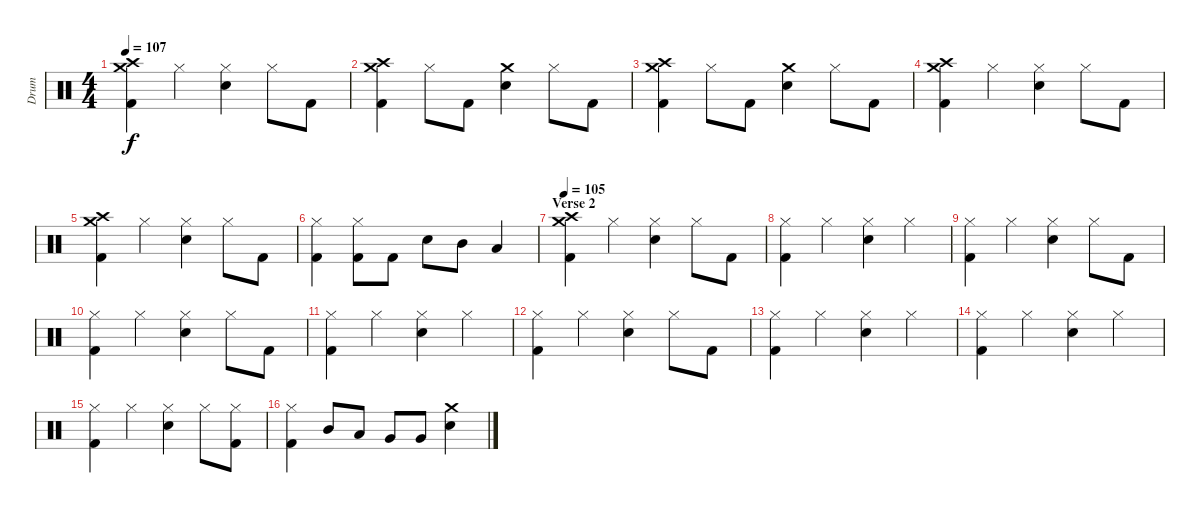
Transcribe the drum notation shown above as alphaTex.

\track ("Drum" "Drum") {instrument percussion}
\staff {score}
\articulation defaults
\ts (4 4)
\tempo 107
\clef neutral
\ks c
("Kick (hit) 2" "Crash high (hit)" "Crash medium (hit)").4{dy f} "Hi-Hat (closed)".4 ("Hi-Hat (closed)" "Snare (hit) 2").4 "Hi-Hat (closed)".8 "Kick (hit) 2".8 |
("Kick (hit) 2" "Crash high (hit)" "Crash medium (hit)").4 "Hi-Hat (closed)".8 "Kick (hit) 2".8 ("Snare (hit) 2" "Crash medium (hit)").4 "Hi-Hat (closed)".8 "Kick (hit) 2".8 |
("Kick (hit) 2" "Crash high (hit)" "Crash medium (hit)").4 "Hi-Hat (closed)".8 "Kick (hit) 2".8 ("Snare (hit) 2" "Crash medium (hit)").4 "Hi-Hat (closed)".8 "Kick (hit) 2".8 |
("Kick (hit) 2" "Crash high (hit)" "Crash medium (hit)").4 "Hi-Hat (closed)".4 ("Hi-Hat (closed)" "Snare (hit) 2").4 "Hi-Hat (closed)".8 "Kick (hit) 2".8 |
("Kick (hit) 2" "Crash high (hit)" "Crash medium (hit)").4 "Hi-Hat (closed)".4 ("Hi-Hat (closed)" "Snare (hit) 2").4 "Hi-Hat (closed)".8 "Kick (hit) 2".8 |
("Hi-Hat (closed)" "Kick (hit) 2").4 ("Hi-Hat (closed)" "Kick (hit) 2").8 "Kick (hit) 2".8 "Snare (hit) 2".8 "Mid Tom (hit)".8 "Low Tom (hit)".4 |
\section ("" "Verse 2")
\tempo 105
("Kick (hit) 2" "Crash medium (hit)" "Crash high (hit)").4 "Hi-Hat (closed)".4 ("Hi-Hat (closed)" "Snare (hit) 2").4 "Hi-Hat (closed)".8 "Kick (hit) 2".8 |
("Hi-Hat (closed)" "Kick (hit) 2").4 "Hi-Hat (closed)".4 ("Hi-Hat (closed)" "Snare (hit) 2").4 "Hi-Hat (closed)".4 |
("Hi-Hat (closed)" "Kick (hit) 2").4 "Hi-Hat (closed)".4 ("Hi-Hat (closed)" "Snare (hit) 2").4 "Hi-Hat (closed)".8 "Kick (hit) 2".8 |
("Hi-Hat (closed)" "Kick (hit) 2").4 "Hi-Hat (closed)".4 ("Hi-Hat (closed)" "Snare (hit) 2").4 "Hi-Hat (closed)".8 "Kick (hit) 2".8 |
("Hi-Hat (closed)" "Kick (hit) 2").4 "Hi-Hat (closed)".4 ("Hi-Hat (closed)" "Snare (hit) 2").4 "Hi-Hat (closed)".4 |
("Hi-Hat (closed)" "Kick (hit) 2").4 "Hi-Hat (closed)".4 ("Hi-Hat (closed)" "Snare (hit) 2").4 "Hi-Hat (closed)".8 "Kick (hit) 2".8 |
("Hi-Hat (closed)" "Kick (hit) 2").4 "Hi-Hat (closed)".4 ("Hi-Hat (closed)" "Snare (hit) 2").4 "Hi-Hat (closed)".4 |
("Hi-Hat (closed)" "Kick (hit) 2").4 "Hi-Hat (closed)".4 ("Hi-Hat (closed)" "Snare (hit) 2").4 "Hi-Hat (closed)".4 |
("Hi-Hat (closed)" "Kick (hit) 2").4 "Hi-Hat (closed)".4 ("Hi-Hat (closed)" "Snare (hit) 2").4 "Hi-Hat (closed)".8 ("Hi-Hat (closed)" "Kick (hit) 2").8 |
("Hi-Hat (closed)" "Kick (hit) 2").4 "Mid Tom (hit)".8 "Low Tom (hit)".8 "Very Low Tom (hit)".8 "Very Low Tom (hit)".8 ("Snare (hit) 2" "Crash medium (hit)").4
